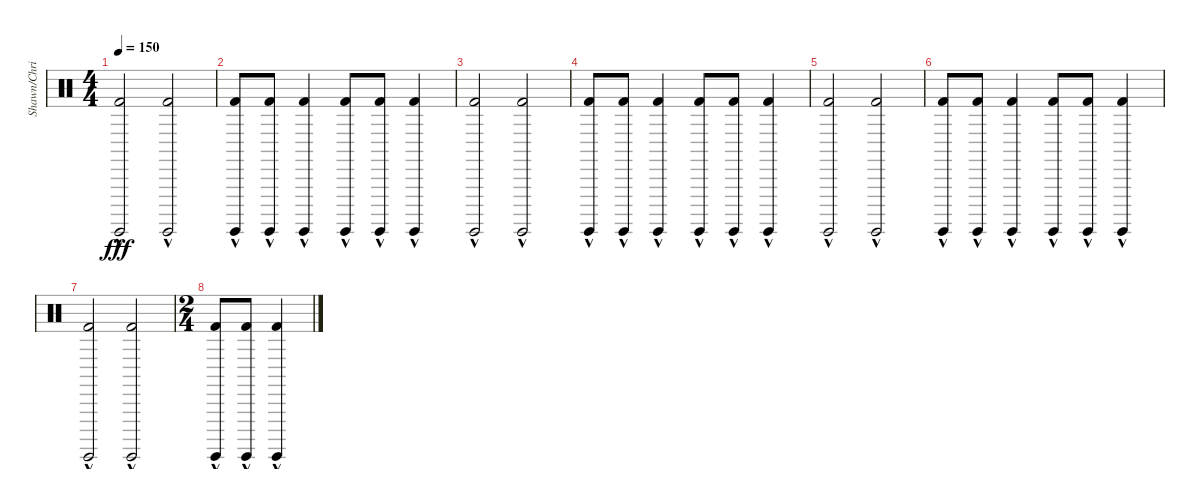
\track ("Shawn/Chris" "Shawn/Chri") {instrument percussion}
\staff {score}
\articulation defaults
\ts (4 4)
\tempo 150
\clef neutral
\ks c
("Surdo (hit)"{hac} "Kick (hit) 2"{hac}).2{dy fff} ("Surdo (hit)"{hac} "Kick (hit) 2"{hac}).2 |
("Surdo (hit)"{hac} "Kick (hit) 2"{hac}).8 ("Surdo (hit)"{hac} "Kick (hit) 2"{hac}).8 ("Surdo (hit)"{hac} "Kick (hit) 2"{hac}).4 ("Surdo (hit)"{hac} "Kick (hit) 2"{hac}).8 ("Surdo (hit)"{hac} "Kick (hit) 2"{hac}).8 ("Surdo (hit)"{hac} "Kick (hit) 2"{hac}).4 |
("Surdo (hit)"{hac} "Kick (hit) 2"{hac}).2 ("Surdo (hit)"{hac} "Kick (hit) 2"{hac}).2 |
("Surdo (hit)"{hac} "Kick (hit) 2"{hac}).8 ("Surdo (hit)"{hac} "Kick (hit) 2"{hac}).8 ("Surdo (hit)"{hac} "Kick (hit) 2"{hac}).4 ("Surdo (hit)"{hac} "Kick (hit) 2"{hac}).8 ("Surdo (hit)"{hac} "Kick (hit) 2"{hac}).8 ("Surdo (hit)"{hac} "Kick (hit) 2"{hac}).4 |
("Surdo (hit)"{hac} "Kick (hit) 2"{hac}).2 ("Surdo (hit)"{hac} "Kick (hit) 2"{hac}).2 |
("Surdo (hit)"{hac} "Kick (hit) 2"{hac}).8 ("Surdo (hit)"{hac} "Kick (hit) 2"{hac}).8 ("Surdo (hit)"{hac} "Kick (hit) 2"{hac}).4 ("Surdo (hit)"{hac} "Kick (hit) 2"{hac}).8 ("Surdo (hit)"{hac} "Kick (hit) 2"{hac}).8 ("Surdo (hit)"{hac} "Kick (hit) 2"{hac}).4 |
("Surdo (hit)"{hac} "Kick (hit) 2"{hac}).2 ("Surdo (hit)"{hac} "Kick (hit) 2"{hac}).2 |
\ts (2 4)
("Surdo (hit)"{hac} "Kick (hit) 2"{hac}).8 ("Surdo (hit)"{hac} "Kick (hit) 2"{hac}).8 ("Surdo (hit)"{hac} "Kick (hit) 2"{hac}).4
